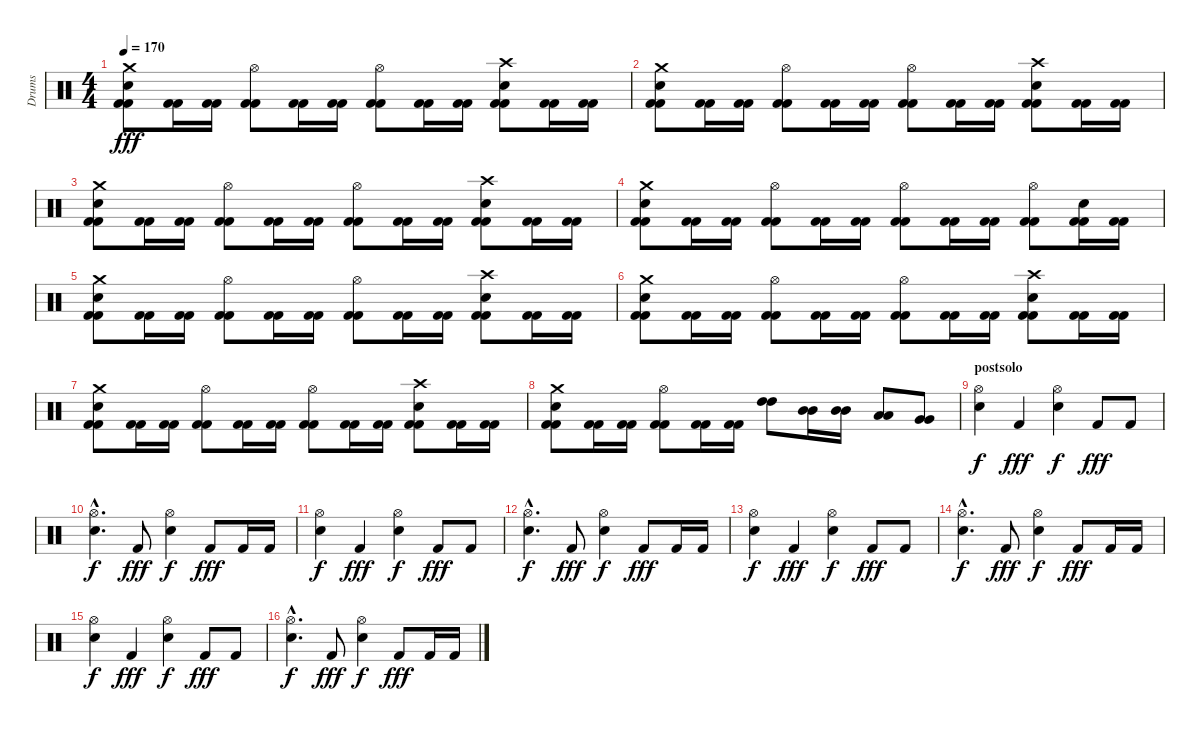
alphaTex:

\track ("Drums" "Drums") {instrument percussion}
\staff {score}
\articulation defaults
\ts (4 4)
\tempo 170
\clef neutral
\ks c
("Crash medium (hit)" "Electric Snare (hit)" "Kick (hit) 2" "Kick (hit) 2").8{dy fff} ("Kick (hit) 2" "Kick (hit) 2").16 ("Kick (hit) 2" "Kick (hit) 2").16 ("Hi-Hat (open)" "Kick (hit) 2" "Kick (hit) 2").8 ("Kick (hit) 2" "Kick (hit) 2").16 ("Kick (hit) 2" "Kick (hit) 2").16 ("Hi-Hat (open)" "Kick (hit) 2" "Kick (hit) 2").8 ("Kick (hit) 2" "Kick (hit) 2").16 ("Kick (hit) 2" "Kick (hit) 2").16 ("Crash high (hit)" "Electric Snare (hit)" "Kick (hit) 2" "Kick (hit) 2").8 ("Kick (hit) 2" "Kick (hit) 2").16 ("Kick (hit) 2" "Kick (hit) 2").16 |
("Crash medium (hit)" "Electric Snare (hit)" "Kick (hit) 2" "Kick (hit) 2").8 ("Kick (hit) 2" "Kick (hit) 2").16 ("Kick (hit) 2" "Kick (hit) 2").16 ("Hi-Hat (open)" "Kick (hit) 2" "Kick (hit) 2").8 ("Kick (hit) 2" "Kick (hit) 2").16 ("Kick (hit) 2" "Kick (hit) 2").16 ("Hi-Hat (open)" "Kick (hit) 2" "Kick (hit) 2").8 ("Kick (hit) 2" "Kick (hit) 2").16 ("Kick (hit) 2" "Kick (hit) 2").16 ("Crash high (hit)" "Electric Snare (hit)" "Kick (hit) 2" "Kick (hit) 2").8 ("Kick (hit) 2" "Kick (hit) 2").16 ("Kick (hit) 2" "Kick (hit) 2").16 |
("Crash medium (hit)" "Electric Snare (hit)" "Kick (hit) 2" "Kick (hit) 2").8 ("Kick (hit) 2" "Kick (hit) 2").16 ("Kick (hit) 2" "Kick (hit) 2").16 ("Hi-Hat (open)" "Kick (hit) 2" "Kick (hit) 2").8 ("Kick (hit) 2" "Kick (hit) 2").16 ("Kick (hit) 2" "Kick (hit) 2").16 ("Hi-Hat (open)" "Kick (hit) 2" "Kick (hit) 2").8 ("Kick (hit) 2" "Kick (hit) 2").16 ("Kick (hit) 2" "Kick (hit) 2").16 ("Crash high (hit)" "Electric Snare (hit)" "Kick (hit) 2" "Kick (hit) 2").8 ("Kick (hit) 2" "Kick (hit) 2").16 ("Kick (hit) 2" "Kick (hit) 2").16 |
("Crash medium (hit)" "Electric Snare (hit)" "Kick (hit) 2" "Kick (hit) 2").8 ("Kick (hit) 2" "Kick (hit) 2").16 ("Kick (hit) 2" "Kick (hit) 2").16 ("Hi-Hat (open)" "Kick (hit) 2" "Kick (hit) 2").8 ("Kick (hit) 2" "Kick (hit) 2").16 ("Kick (hit) 2" "Kick (hit) 2").16 ("Hi-Hat (open)" "Kick (hit) 2" "Kick (hit) 2").8 ("Kick (hit) 2" "Kick (hit) 2").16 ("Kick (hit) 2" "Kick (hit) 2").16 ("Hi-Hat (open)" "Kick (hit) 2" "Kick (hit) 2").8 ("Electric Snare (hit)" "Kick (hit) 2" "Kick (hit) 2").16 ("Kick (hit) 2" "Kick (hit) 2").16 |
("Crash medium (hit)" "Electric Snare (hit)" "Kick (hit) 2" "Kick (hit) 2").8 ("Kick (hit) 2" "Kick (hit) 2").16 ("Kick (hit) 2" "Kick (hit) 2").16 ("Hi-Hat (open)" "Kick (hit) 2" "Kick (hit) 2").8 ("Kick (hit) 2" "Kick (hit) 2").16 ("Kick (hit) 2" "Kick (hit) 2").16 ("Hi-Hat (open)" "Kick (hit) 2" "Kick (hit) 2").8 ("Kick (hit) 2" "Kick (hit) 2").16 ("Kick (hit) 2" "Kick (hit) 2").16 ("Crash high (hit)" "Electric Snare (hit)" "Kick (hit) 2" "Kick (hit) 2").8 ("Kick (hit) 2" "Kick (hit) 2").16 ("Kick (hit) 2" "Kick (hit) 2").16 |
("Crash medium (hit)" "Electric Snare (hit)" "Kick (hit) 2" "Kick (hit) 2").8 ("Kick (hit) 2" "Kick (hit) 2").16 ("Kick (hit) 2" "Kick (hit) 2").16 ("Hi-Hat (open)" "Kick (hit) 2" "Kick (hit) 2").8 ("Kick (hit) 2" "Kick (hit) 2").16 ("Kick (hit) 2" "Kick (hit) 2").16 ("Hi-Hat (open)" "Kick (hit) 2" "Kick (hit) 2").8 ("Kick (hit) 2" "Kick (hit) 2").16 ("Kick (hit) 2" "Kick (hit) 2").16 ("Crash high (hit)" "Electric Snare (hit)" "Kick (hit) 2" "Kick (hit) 2").8 ("Kick (hit) 2" "Kick (hit) 2").16 ("Kick (hit) 2" "Kick (hit) 2").16 |
("Crash medium (hit)" "Electric Snare (hit)" "Kick (hit) 2" "Kick (hit) 2").8 ("Kick (hit) 2" "Kick (hit) 2").16 ("Kick (hit) 2" "Kick (hit) 2").16 ("Hi-Hat (open)" "Kick (hit) 2" "Kick (hit) 2").8 ("Kick (hit) 2" "Kick (hit) 2").16 ("Kick (hit) 2" "Kick (hit) 2").16 ("Hi-Hat (open)" "Kick (hit) 2" "Kick (hit) 2").8 ("Kick (hit) 2" "Kick (hit) 2").16 ("Kick (hit) 2" "Kick (hit) 2").16 ("Crash high (hit)" "Electric Snare (hit)" "Kick (hit) 2" "Kick (hit) 2").8 ("Kick (hit) 2" "Kick (hit) 2").16 ("Kick (hit) 2" "Kick (hit) 2").16 |
("Crash medium (hit)" "Electric Snare (hit)" "Kick (hit) 2" "Kick (hit) 2").8 ("Kick (hit) 2" "Kick (hit) 2").16 ("Kick (hit) 2" "Kick (hit) 2").16 ("Hi-Hat (open)" "Kick (hit) 2" "Kick (hit) 2").8 ("Kick (hit) 2" "Kick (hit) 2").16 ("Kick (hit) 2" "Kick (hit) 2").16 ("High Tom (hit)" "High Tom (hit)").8 ("Mid Tom (hit)" "Mid Tom (hit)").16 ("Mid Tom (hit)" "Mid Tom (hit)").16 ("Low Tom (hit)" "Low Tom (hit)").8 ("Very Low Tom (hit)" "Very Low Tom (hit)").8 |
\section ("" "postsolo")
("Hi-Hat (open)" "Electric Snare (hit)").4{dy f} "Kick (hit) 2".4{dy fff} ("Hi-Hat (open)" "Electric Snare (hit)").4{dy f} "Kick (hit) 2".8{dy fff} "Kick (hit) 2".8 |
("Hi-Hat (open)"{hac} "Electric Snare (hit)"{hac}).4{d dy f} "Kick (hit) 2".8{dy fff} ("Hi-Hat (open)" "Electric Snare (hit)").4{dy f} "Kick (hit) 2".8{dy fff} "Kick (hit) 2".16 "Kick (hit) 2".16 |
("Hi-Hat (open)" "Electric Snare (hit)").4{dy f} "Kick (hit) 2".4{dy fff} ("Hi-Hat (open)" "Electric Snare (hit)").4{dy f} "Kick (hit) 2".8{dy fff} "Kick (hit) 2".8 |
("Hi-Hat (open)"{hac} "Electric Snare (hit)"{hac}).4{d dy f} "Kick (hit) 2".8{dy fff} ("Hi-Hat (open)" "Electric Snare (hit)").4{dy f} "Kick (hit) 2".8{dy fff} "Kick (hit) 2".16 "Kick (hit) 2".16 |
("Hi-Hat (open)" "Electric Snare (hit)").4{dy f} "Kick (hit) 2".4{dy fff} ("Hi-Hat (open)" "Electric Snare (hit)").4{dy f} "Kick (hit) 2".8{dy fff} "Kick (hit) 2".8 |
("Hi-Hat (open)"{hac} "Electric Snare (hit)"{hac}).4{d dy f} "Kick (hit) 2".8{dy fff} ("Hi-Hat (open)" "Electric Snare (hit)").4{dy f} "Kick (hit) 2".8{dy fff} "Kick (hit) 2".16 "Kick (hit) 2".16 |
("Hi-Hat (open)" "Electric Snare (hit)").4{dy f} "Kick (hit) 2".4{dy fff} ("Hi-Hat (open)" "Electric Snare (hit)").4{dy f} "Kick (hit) 2".8{dy fff} "Kick (hit) 2".8 |
("Hi-Hat (open)"{hac} "Electric Snare (hit)"{hac}).4{d dy f} "Kick (hit) 2".8{dy fff} ("Hi-Hat (open)" "Electric Snare (hit)").4{dy f} "Kick (hit) 2".8{dy fff} "Kick (hit) 2".16 "Kick (hit) 2".16
